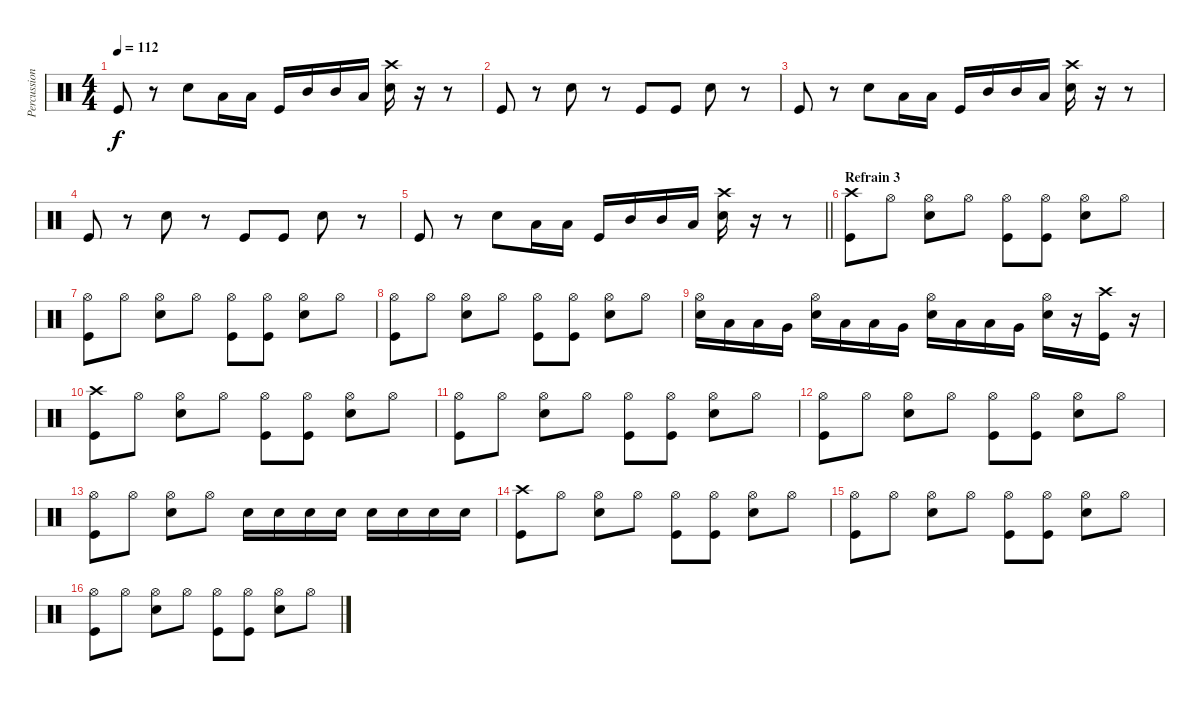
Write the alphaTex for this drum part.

\track ("Percussions" "Percussion") {instrument percussion}
\staff {score}
\articulation defaults
\ts (4 4)
\tempo 112
\clef neutral
\ks c "Kick (hit)".8{dy f}
r.8 "Snare (hit) 2".8 "Low Tom (hit)".16 "Low Tom (hit)".16 "Kick (hit)".16 "Mid Tom (hit)".16 "Mid Tom (hit)".16 "Low Tom (hit)".16 ("Crash high (hit)" "Snare (hit) 2").16 r.16 r.8 |
"Kick (hit)".8 r.8 "Snare (hit) 2".8 r.8 "Kick (hit)".8 "Kick (hit)".8 "Snare (hit) 2".8 r.8 |
"Kick (hit)".8 r.8 "Snare (hit) 2".8 "Low Tom (hit)".16 "Low Tom (hit)".16 "Kick (hit)".16 "Mid Tom (hit)".16 "Mid Tom (hit)".16 "Low Tom (hit)".16 ("Crash high (hit)" "Snare (hit) 2").16 r.16 r.8 |
"Kick (hit)".8 r.8 "Snare (hit) 2".8 r.8 "Kick (hit)".8 "Kick (hit)".8 "Snare (hit) 2".8 r.8 |
\barLineRight lightlight "Kick (hit)".8
r.8 "Snare (hit) 2".8 "Low Tom (hit)".16 "Low Tom (hit)".16 "Kick (hit)".16 "Mid Tom (hit)".16 "Mid Tom (hit)".16 "Low Tom (hit)".16 ("Crash high (hit)" "Snare (hit) 2").16 r.16 r.8 |
\section ("" "Refrain 3")
("Crash high (hit)" "Kick (hit)").8 "Hi-Hat (open)".8 ("Hi-Hat (open)" "Snare (hit) 2").8 "Hi-Hat (open)".8 ("Hi-Hat (open)" "Kick (hit)").8 ("Hi-Hat (open)" "Kick (hit)").8 ("Hi-Hat (open)" "Snare (hit) 2").8 "Hi-Hat (open)".8 |
("Hi-Hat (open)" "Kick (hit)").8 "Hi-Hat (open)".8 ("Hi-Hat (open)" "Snare (hit) 2").8 "Hi-Hat (open)".8 ("Hi-Hat (open)" "Kick (hit)").8 ("Hi-Hat (open)" "Kick (hit)").8 ("Hi-Hat (open)" "Snare (hit) 2").8 "Hi-Hat (open)".8 |
("Hi-Hat (open)" "Kick (hit)").8 "Hi-Hat (open)".8 ("Hi-Hat (open)" "Snare (hit) 2").8 "Hi-Hat (open)".8 ("Hi-Hat (open)" "Kick (hit)").8 ("Hi-Hat (open)" "Kick (hit)").8 ("Hi-Hat (open)" "Snare (hit) 2").8 "Hi-Hat (open)".8 |
("Hi-Hat (open)" "Snare (hit) 2").16 "Low Tom (hit)".16 "Low Tom (hit)".16 "Very Low Tom (hit)".16 ("Hi-Hat (open)" "Snare (hit) 2").16 "Low Tom (hit)".16 "Low Tom (hit)".16 "Very Low Tom (hit)".16 ("Hi-Hat (open)" "Snare (hit) 2").16 "Low Tom (hit)".16 "Low Tom (hit)".16 "Very Low Tom (hit)".16 ("Hi-Hat (open)" "Snare (hit) 2").16 r.16 ("Crash high (hit)" "Kick (hit)").16 r.16 |
("Crash high (hit)" "Kick (hit)").8 "Hi-Hat (open)".8 ("Hi-Hat (open)" "Snare (hit) 2").8 "Hi-Hat (open)".8 ("Hi-Hat (open)" "Kick (hit)").8 ("Hi-Hat (open)" "Kick (hit)").8 ("Hi-Hat (open)" "Snare (hit) 2").8 "Hi-Hat (open)".8 |
("Hi-Hat (open)" "Kick (hit)").8 "Hi-Hat (open)".8 ("Hi-Hat (open)" "Snare (hit) 2").8 "Hi-Hat (open)".8 ("Hi-Hat (open)" "Kick (hit)").8 ("Hi-Hat (open)" "Kick (hit)").8 ("Hi-Hat (open)" "Snare (hit) 2").8 "Hi-Hat (open)".8 |
("Hi-Hat (open)" "Kick (hit)").8 "Hi-Hat (open)".8 ("Hi-Hat (open)" "Snare (hit) 2").8 "Hi-Hat (open)".8 ("Hi-Hat (open)" "Kick (hit)").8 ("Hi-Hat (open)" "Kick (hit)").8 ("Hi-Hat (open)" "Snare (hit) 2").8 "Hi-Hat (open)".8 |
("Hi-Hat (open)" "Kick (hit)").8 "Hi-Hat (open)".8 ("Hi-Hat (open)" "Snare (hit) 2").8 "Hi-Hat (open)".8 "Snare (hit) 2".16 "Snare (hit) 2".16 "Snare (hit) 2".16 "Snare (hit) 2".16 "Snare (hit) 2".16 "Snare (hit) 2".16 "Snare (hit) 2".16 "Snare (hit) 2".16 |
("Crash high (hit)" "Kick (hit)").8 "Hi-Hat (open)".8 ("Hi-Hat (open)" "Snare (hit) 2").8 "Hi-Hat (open)".8 ("Hi-Hat (open)" "Kick (hit)").8 ("Hi-Hat (open)" "Kick (hit)").8 ("Hi-Hat (open)" "Snare (hit) 2").8 "Hi-Hat (open)".8 |
("Hi-Hat (open)" "Kick (hit)").8 "Hi-Hat (open)".8 ("Hi-Hat (open)" "Snare (hit) 2").8 "Hi-Hat (open)".8 ("Hi-Hat (open)" "Kick (hit)").8 ("Hi-Hat (open)" "Kick (hit)").8 ("Hi-Hat (open)" "Snare (hit) 2").8 "Hi-Hat (open)".8 |
("Hi-Hat (open)" "Kick (hit)").8 "Hi-Hat (open)".8 ("Hi-Hat (open)" "Snare (hit) 2").8 "Hi-Hat (open)".8 ("Hi-Hat (open)" "Kick (hit)").8 ("Hi-Hat (open)" "Kick (hit)").8 ("Hi-Hat (open)" "Snare (hit) 2").8 "Hi-Hat (open)".8
